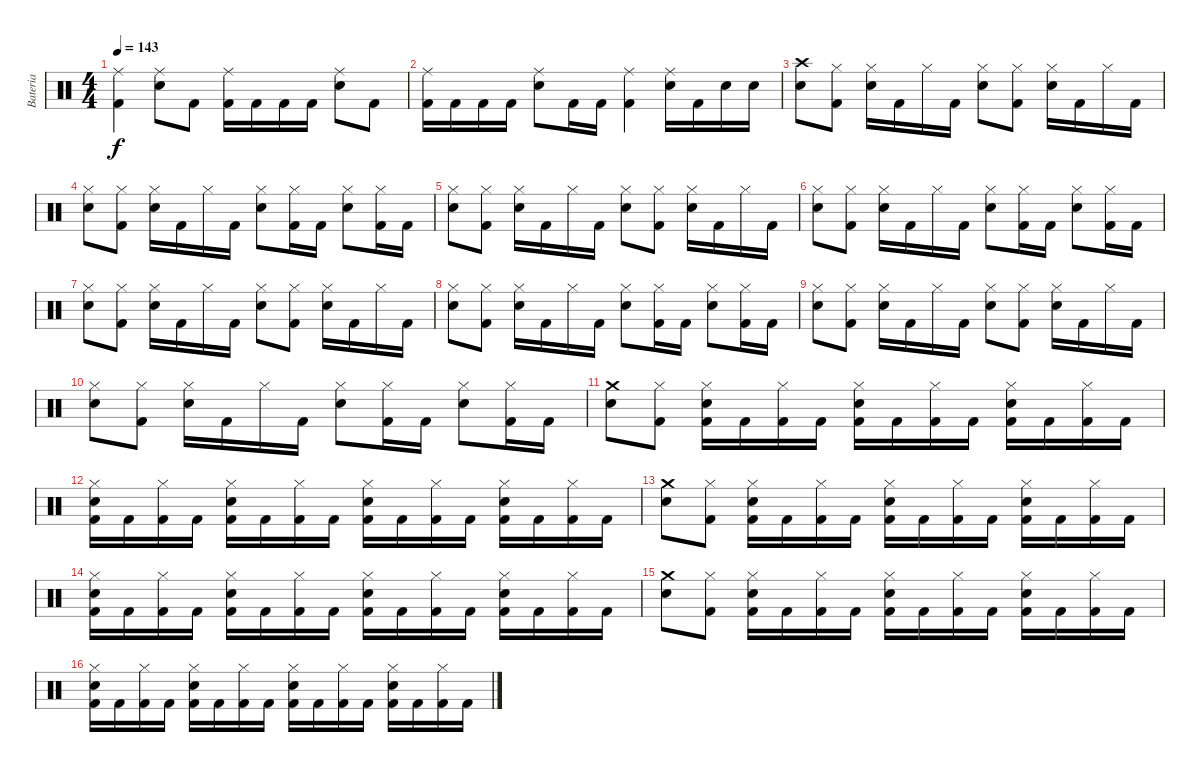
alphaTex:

\track ("Bateria" "Bateria") {instrument percussion}
\staff {score}
\articulation defaults
\ts (4 4)
\tempo 143
\clef neutral
\ks c
("Ride (middle)" "Kick (hit) 2").4{dy f} ("Ride (middle)" "Snare (hit) 2").8 "Kick (hit) 2".8 ("Ride (middle)" "Kick (hit) 2").16 "Kick (hit) 2".16 "Kick (hit) 2".16 "Kick (hit) 2".16 ("Ride (middle)" "Snare (hit) 2").8 "Kick (hit) 2".8 |
("Ride (middle)" "Kick (hit) 2").16 "Kick (hit) 2".16 "Kick (hit) 2".16 "Kick (hit) 2".16 ("Ride (middle)" "Snare (hit) 2").8 "Kick (hit) 2".16 "Kick (hit) 2".16 ("Ride (middle)" "Kick (hit) 2").4 ("Ride (middle)" "Snare (hit) 2").16 "Kick (hit) 2".16 "Snare (hit) 2".16 "Snare (hit) 2".16 |
("Crash high (hit)" "Snare (hit) 2").8 ("Hi-Hat (closed)" "Kick (hit) 2").8 ("Hi-Hat (closed)" "Snare (hit) 2").16 "Kick (hit) 2".16 "Hi-Hat (closed)".16 "Kick (hit) 2".16 ("Hi-Hat (closed)" "Snare (hit) 2").8 ("Hi-Hat (closed)" "Kick (hit) 2").8 ("Hi-Hat (closed)" "Snare (hit) 2").16 "Kick (hit) 2".16 "Hi-Hat (closed)".16 "Kick (hit) 2".16 |
("Hi-Hat (closed)" "Snare (hit) 2").8 ("Hi-Hat (closed)" "Kick (hit) 2").8 ("Hi-Hat (closed)" "Snare (hit) 2").16 "Kick (hit) 2".16 "Hi-Hat (closed)".16 "Kick (hit) 2".16 ("Hi-Hat (closed)" "Snare (hit) 2").8 ("Hi-Hat (closed)" "Kick (hit) 2").16 "Kick (hit) 2".16 ("Hi-Hat (closed)" "Snare (hit) 2").8 ("Hi-Hat (closed)" "Kick (hit) 2").16 "Kick (hit) 2".16 |
("Hi-Hat (closed)" "Snare (hit) 2").8 ("Hi-Hat (closed)" "Kick (hit) 2").8 ("Hi-Hat (closed)" "Snare (hit) 2").16 "Kick (hit) 2".16 "Hi-Hat (closed)".16 "Kick (hit) 2".16 ("Hi-Hat (closed)" "Snare (hit) 2").8 ("Hi-Hat (closed)" "Kick (hit) 2").8 ("Hi-Hat (closed)" "Snare (hit) 2").16 "Kick (hit) 2".16 "Hi-Hat (closed)".16 "Kick (hit) 2".16 |
("Hi-Hat (closed)" "Snare (hit) 2").8 ("Hi-Hat (closed)" "Kick (hit) 2").8 ("Hi-Hat (closed)" "Snare (hit) 2").16 "Kick (hit) 2".16 "Hi-Hat (closed)".16 "Kick (hit) 2".16 ("Hi-Hat (closed)" "Snare (hit) 2").8 ("Hi-Hat (closed)" "Kick (hit) 2").16 "Kick (hit) 2".16 ("Hi-Hat (closed)" "Snare (hit) 2").8 ("Hi-Hat (closed)" "Kick (hit) 2").16 "Kick (hit) 2".16 |
("Hi-Hat (closed)" "Snare (hit) 2").8 ("Hi-Hat (closed)" "Kick (hit) 2").8 ("Hi-Hat (closed)" "Snare (hit) 2").16 "Kick (hit) 2".16 "Hi-Hat (closed)".16 "Kick (hit) 2".16 ("Hi-Hat (closed)" "Snare (hit) 2").8 ("Hi-Hat (closed)" "Kick (hit) 2").8 ("Hi-Hat (closed)" "Snare (hit) 2").16 "Kick (hit) 2".16 "Hi-Hat (closed)".16 "Kick (hit) 2".16 |
("Hi-Hat (closed)" "Snare (hit) 2").8 ("Hi-Hat (closed)" "Kick (hit) 2").8 ("Hi-Hat (closed)" "Snare (hit) 2").16 "Kick (hit) 2".16 "Hi-Hat (closed)".16 "Kick (hit) 2".16 ("Hi-Hat (closed)" "Snare (hit) 2").8 ("Hi-Hat (closed)" "Kick (hit) 2").16 "Kick (hit) 2".16 ("Hi-Hat (closed)" "Snare (hit) 2").8 ("Hi-Hat (closed)" "Kick (hit) 2").16 "Kick (hit) 2".16 |
("Hi-Hat (closed)" "Snare (hit) 2").8 ("Hi-Hat (closed)" "Kick (hit) 2").8 ("Hi-Hat (closed)" "Snare (hit) 2").16 "Kick (hit) 2".16 "Hi-Hat (closed)".16 "Kick (hit) 2".16 ("Hi-Hat (closed)" "Snare (hit) 2").8 ("Hi-Hat (closed)" "Kick (hit) 2").8 ("Hi-Hat (closed)" "Snare (hit) 2").16 "Kick (hit) 2".16 "Hi-Hat (closed)".16 "Kick (hit) 2".16 |
("Hi-Hat (closed)" "Snare (hit) 2").8 ("Hi-Hat (closed)" "Kick (hit) 2").8 ("Hi-Hat (closed)" "Snare (hit) 2").16 "Kick (hit) 2".16 "Hi-Hat (closed)".16 "Kick (hit) 2".16 ("Hi-Hat (closed)" "Snare (hit) 2").8 ("Hi-Hat (closed)" "Kick (hit) 2").16 "Kick (hit) 2".16 ("Hi-Hat (closed)" "Snare (hit) 2").8 ("Hi-Hat (closed)" "Kick (hit) 2").16 "Kick (hit) 2".16 |
("Crash medium (hit)" "Snare (hit) 2").8 ("Hi-Hat (closed)" "Kick (hit) 2").8 ("Hi-Hat (closed)" "Snare (hit) 2" "Kick (hit) 2").16 "Kick (hit) 2".16 ("Hi-Hat (closed)" "Kick (hit) 2").16 "Kick (hit) 2".16 ("Hi-Hat (closed)" "Snare (hit) 2" "Kick (hit) 2").16 "Kick (hit) 2".16 ("Hi-Hat (closed)" "Kick (hit) 2").16 "Kick (hit) 2".16 ("Hi-Hat (closed)" "Snare (hit) 2" "Kick (hit) 2").16 "Kick (hit) 2".16 ("Hi-Hat (closed)" "Kick (hit) 2").16 "Kick (hit) 2".16 |
("Hi-Hat (closed)" "Snare (hit) 2" "Kick (hit) 2").16 "Kick (hit) 2".16 ("Hi-Hat (closed)" "Kick (hit) 2").16 "Kick (hit) 2".16 ("Hi-Hat (closed)" "Snare (hit) 2" "Kick (hit) 2").16 "Kick (hit) 2".16 ("Hi-Hat (closed)" "Kick (hit) 2").16 "Kick (hit) 2".16 ("Hi-Hat (closed)" "Snare (hit) 2" "Kick (hit) 2").16 "Kick (hit) 2".16 ("Hi-Hat (closed)" "Kick (hit) 2").16 "Kick (hit) 2".16 ("Hi-Hat (closed)" "Snare (hit) 2" "Kick (hit) 2").16 "Kick (hit) 2".16 ("Hi-Hat (closed)" "Kick (hit) 2").16 "Kick (hit) 2".16 |
("Crash medium (hit)" "Snare (hit) 2").8 ("Hi-Hat (closed)" "Kick (hit) 2").8 ("Hi-Hat (closed)" "Snare (hit) 2" "Kick (hit) 2").16 "Kick (hit) 2".16 ("Hi-Hat (closed)" "Kick (hit) 2").16 "Kick (hit) 2".16 ("Hi-Hat (closed)" "Snare (hit) 2" "Kick (hit) 2").16 "Kick (hit) 2".16 ("Hi-Hat (closed)" "Kick (hit) 2").16 "Kick (hit) 2".16 ("Hi-Hat (closed)" "Snare (hit) 2" "Kick (hit) 2").16 "Kick (hit) 2".16 ("Hi-Hat (closed)" "Kick (hit) 2").16 "Kick (hit) 2".16 |
("Hi-Hat (closed)" "Snare (hit) 2" "Kick (hit) 2").16 "Kick (hit) 2".16 ("Hi-Hat (closed)" "Kick (hit) 2").16 "Kick (hit) 2".16 ("Hi-Hat (closed)" "Snare (hit) 2" "Kick (hit) 2").16 "Kick (hit) 2".16 ("Hi-Hat (closed)" "Kick (hit) 2").16 "Kick (hit) 2".16 ("Hi-Hat (closed)" "Snare (hit) 2" "Kick (hit) 2").16 "Kick (hit) 2".16 ("Hi-Hat (closed)" "Kick (hit) 2").16 "Kick (hit) 2".16 ("Hi-Hat (closed)" "Snare (hit) 2" "Kick (hit) 2").16 "Kick (hit) 2".16 ("Hi-Hat (closed)" "Kick (hit) 2").16 "Kick (hit) 2".16 |
("Crash medium (hit)" "Snare (hit) 2").8 ("Hi-Hat (closed)" "Kick (hit) 2").8 ("Hi-Hat (closed)" "Snare (hit) 2" "Kick (hit) 2").16 "Kick (hit) 2".16 ("Hi-Hat (closed)" "Kick (hit) 2").16 "Kick (hit) 2".16 ("Hi-Hat (closed)" "Snare (hit) 2" "Kick (hit) 2").16 "Kick (hit) 2".16 ("Hi-Hat (closed)" "Kick (hit) 2").16 "Kick (hit) 2".16 ("Hi-Hat (closed)" "Snare (hit) 2" "Kick (hit) 2").16 "Kick (hit) 2".16 ("Hi-Hat (closed)" "Kick (hit) 2").16 "Kick (hit) 2".16 |
("Hi-Hat (closed)" "Snare (hit) 2" "Kick (hit) 2").16 "Kick (hit) 2".16 ("Hi-Hat (closed)" "Kick (hit) 2").16 "Kick (hit) 2".16 ("Hi-Hat (closed)" "Snare (hit) 2" "Kick (hit) 2").16 "Kick (hit) 2".16 ("Hi-Hat (closed)" "Kick (hit) 2").16 "Kick (hit) 2".16 ("Hi-Hat (closed)" "Snare (hit) 2" "Kick (hit) 2").16 "Kick (hit) 2".16 ("Hi-Hat (closed)" "Kick (hit) 2").16 "Kick (hit) 2".16 ("Hi-Hat (closed)" "Snare (hit) 2" "Kick (hit) 2").16 "Kick (hit) 2".16 ("Hi-Hat (closed)" "Kick (hit) 2").16 "Kick (hit) 2".16
